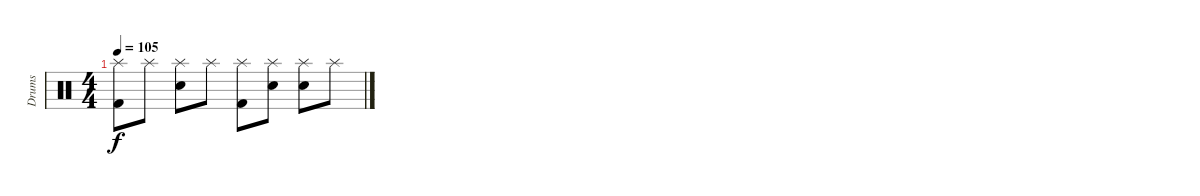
\track ("Drums" "Drums") {instrument percussion}
\staff {score}
\articulation defaults
\ts (4 4)
\tempo 105
\clef neutral
\ks c
("Splash (hit)" "Kick (hit) 2").8{dy f} "Splash (hit)".8 ("Splash (hit)" "Snare (hit) 2").8 "Splash (hit)".8 ("Splash (hit)" "Kick (hit) 2").8 ("Splash (hit)" "Snare (hit) 2").8 ("Splash (hit)" "Snare (hit) 2").8 "Splash (hit)".8
